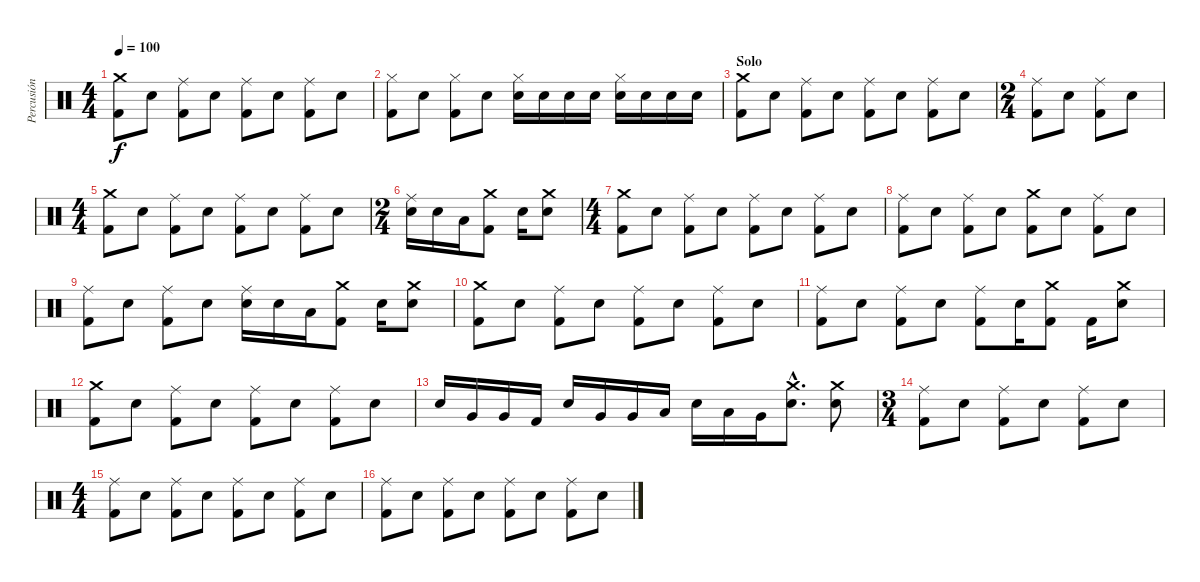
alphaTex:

\track ("Percusión" "Percusión") {instrument percussion}
\staff {score}
\articulation defaults
\ts (4 4)
\tempo 100
\clef neutral
\ks c
("Crash medium (hit)" "Kick (hit) 2").8{dy f} "Snare (hit) 2".8 ("Ride (middle)" "Kick (hit) 2").8 "Snare (hit) 2".8 ("Ride (middle)" "Kick (hit) 2").8 "Snare (hit) 2".8 ("Ride (middle)" "Kick (hit) 2").8 "Snare (hit) 2".8 |
("Hi-Hat (closed)" "Kick (hit) 2").8 "Snare (hit) 2".8 ("Kick (hit) 2" "Hi-Hat (closed)").8 "Snare (hit) 2".8 ("Hi-Hat (closed)" "Snare (hit) 2").16 "Snare (hit) 2".16 "Snare (hit) 2".16 "Snare (hit) 2".16 ("Hi-Hat (closed)" "Snare (hit) 2").16 "Snare (hit) 2".16 "Snare (hit) 2".16 "Snare (hit) 2".16 |
\section ("" "Solo")
("Crash medium (hit)" "Kick (hit) 2").8 "Snare (hit) 2".8 ("Ride (middle)" "Kick (hit) 2").8 "Snare (hit) 2".8 ("Ride (middle)" "Kick (hit) 2").8 "Snare (hit) 2".8 ("Ride (middle)" "Kick (hit) 2").8 "Snare (hit) 2".8 |
\ts (2 4)
("Ride (middle)" "Kick (hit) 2").8 "Snare (hit) 2".8 ("Ride (middle)" "Kick (hit) 2").8 "Snare (hit) 2".8 |
\ts (4 4)
("Crash medium (hit)" "Kick (hit) 2").8 "Snare (hit) 2".8 ("Ride (middle)" "Kick (hit) 2").8 "Snare (hit) 2".8 ("Ride (middle)" "Kick (hit) 2").8 "Snare (hit) 2".8 ("Ride (middle)" "Kick (hit) 2").8 "Snare (hit) 2".8 |
\ts (2 4)
("Snare (hit) 2" "Ride (middle)").16 "Snare (hit) 2".16 "Low Tom (hit)".16 ("Crash medium (hit)" "Kick (hit) 2").8 "Snare (hit) 2".16 ("Crash medium (hit)" "Snare (hit) 2").8 |
\ts (4 4)
("Crash medium (hit)" "Kick (hit) 2").8 "Snare (hit) 2".8 ("Ride (middle)" "Kick (hit) 2").8 "Snare (hit) 2".8 ("Ride (middle)" "Kick (hit) 2").8 "Snare (hit) 2".8 ("Ride (middle)" "Kick (hit) 2").8 "Snare (hit) 2".8 |
("Ride (middle)" "Kick (hit) 2").8 "Snare (hit) 2".8 ("Ride (middle)" "Kick (hit) 2").8 "Snare (hit) 2".8 ("Crash medium (hit)" "Kick (hit) 2").8 "Snare (hit) 2".8 ("Ride (middle)" "Kick (hit) 2").8 "Snare (hit) 2".8 |
("Ride (middle)" "Kick (hit) 2").8 "Snare (hit) 2".8 ("Ride (middle)" "Kick (hit) 2").8 "Snare (hit) 2".8 ("Snare (hit) 2" "Ride (middle)").16 "Snare (hit) 2".16 "Low Tom (hit)".16 ("Crash medium (hit)" "Kick (hit) 2").8 "Snare (hit) 2".16 ("Crash medium (hit)" "Snare (hit) 2").8 |
("Crash medium (hit)" "Kick (hit) 2").8 "Snare (hit) 2".8 ("Ride (middle)" "Kick (hit) 2").8 "Snare (hit) 2".8 ("Ride (middle)" "Kick (hit) 2").8 "Snare (hit) 2".8 ("Ride (middle)" "Kick (hit) 2").8 "Snare (hit) 2".8 |
("Ride (middle)" "Kick (hit) 2").8 "Snare (hit) 2".8 ("Ride (middle)" "Kick (hit) 2").8 "Snare (hit) 2".8 ("Ride (middle)" "Kick (hit) 2").8 "Snare (hit) 2".16 ("Crash medium (hit)" "Kick (hit) 2").8 "Kick (hit) 2".16 ("Crash medium (hit)" "Snare (hit) 2").8 |
("Crash medium (hit)" "Kick (hit) 2").8 "Snare (hit) 2".8 ("Ride (middle)" "Kick (hit) 2").8 "Snare (hit) 2".8 ("Ride (middle)" "Kick (hit) 2").8 "Snare (hit) 2".8 ("Ride (middle)" "Kick (hit) 2").8 "Snare (hit) 2".8 |
"Snare (hit) 2".16 "Very Low Tom (hit)".16 "Very Low Tom (hit)".16 "Kick (hit) 2".16 "Snare (hit) 2".16 "Very Low Tom (hit)".16 "Very Low Tom (hit)".16 "Low Floor Tom (hit)".16 "Snare (hit) 2".16 "Low Tom (hit)".16 "Very Low Tom (hit)".16 ("Snare (hit) 2"{hac} "Crash medium (hit)").8{d} ("Crash medium (hit)" "Snare (hit) 2").8 |
\ts (3 4)
("Ride (middle)" "Kick (hit) 2").8 "Snare (hit) 2".8 ("Ride (middle)" "Kick (hit) 2").8 "Snare (hit) 2".8 ("Ride (middle)" "Kick (hit) 2").8 "Snare (hit) 2".8 |
\ts (4 4)
("Ride (middle)" "Kick (hit) 2").8 "Snare (hit) 2".8 ("Ride (middle)" "Kick (hit) 2").8 "Snare (hit) 2".8 ("Ride (middle)" "Kick (hit) 2").8 "Snare (hit) 2".8 ("Ride (middle)" "Kick (hit) 2").8 "Snare (hit) 2".8 |
("Ride (middle)" "Kick (hit) 2").8 "Snare (hit) 2".8 ("Ride (middle)" "Kick (hit) 2").8 "Snare (hit) 2".8 ("Ride (middle)" "Kick (hit) 2").8 "Snare (hit) 2".8 ("Ride (middle)" "Kick (hit) 2").8 "Snare (hit) 2".8
